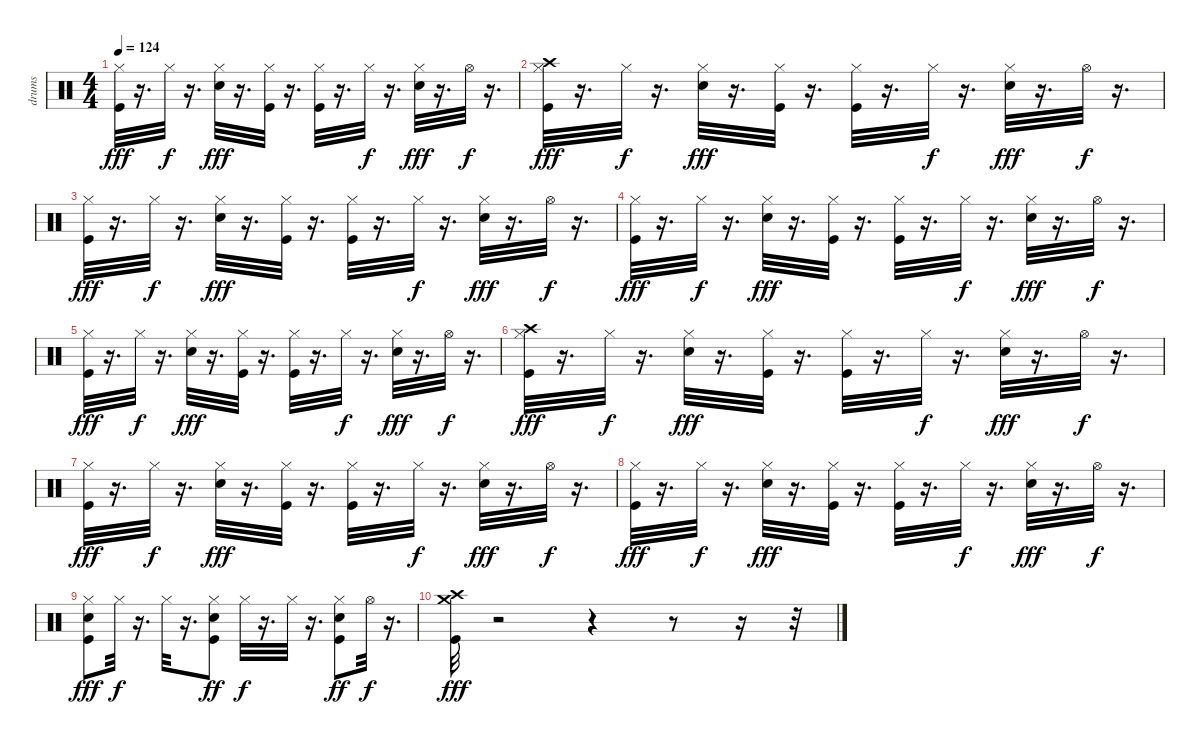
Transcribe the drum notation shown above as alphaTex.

\track ("drums" "drums") {instrument percussion}
\staff {score}
\articulation defaults
\ts (4 4)
\tempo 124
\clef neutral
\ks c
("Hi-Hat (closed)" "Kick (hit)").32{dy fff} r.16{d} "Hi-Hat (closed)".32{dy f} r.16{d} ("Hi-Hat (closed)" "Electric Snare (hit)").32{dy fff} r.16{d} ("Hi-Hat (closed)" "Kick (hit)").32 r.16{d} ("Hi-Hat (closed)" "Kick (hit)").32 r.16{d} "Hi-Hat (closed)".32{dy f} r.16{d} ("Hi-Hat (closed)" "Electric Snare (hit)").32{dy fff} r.16{d} "Hi-Hat (open)".32{dy f} r.16{d} |
("Crash high (hit)" "Hi-Hat (closed)" "Kick (hit)").32{dy fff} r.16{d} "Hi-Hat (closed)".32{dy f} r.16{d} ("Hi-Hat (closed)" "Electric Snare (hit)").32{dy fff} r.16{d} ("Hi-Hat (closed)" "Kick (hit)").32 r.16{d} ("Hi-Hat (closed)" "Kick (hit)").32 r.16{d} "Hi-Hat (closed)".32{dy f} r.16{d} ("Hi-Hat (closed)" "Electric Snare (hit)").32{dy fff} r.16{d} "Hi-Hat (open)".32{dy f} r.16{d} |
("Kick (hit)" "Hi-Hat (closed)").32{dy fff} r.16{d} "Hi-Hat (closed)".32{dy f} r.16{d} ("Electric Snare (hit)" "Hi-Hat (closed)").32{dy fff} r.16{d} ("Kick (hit)" "Hi-Hat (closed)").32 r.16{d} ("Kick (hit)" "Hi-Hat (closed)").32 r.16{d} "Hi-Hat (closed)".32{dy f} r.16{d} ("Electric Snare (hit)" "Hi-Hat (closed)").32{dy fff} r.16{d} "Hi-Hat (open)".32{dy f} r.16{d} |
("Hi-Hat (closed)" "Kick (hit)").32{dy fff} r.16{d} "Hi-Hat (closed)".32{dy f} r.16{d} ("Hi-Hat (closed)" "Electric Snare (hit)").32{dy fff} r.16{d} ("Hi-Hat (closed)" "Kick (hit)").32 r.16{d} ("Hi-Hat (closed)" "Kick (hit)").32 r.16{d} "Hi-Hat (closed)".32{dy f} r.16{d} ("Hi-Hat (closed)" "Electric Snare (hit)").32{dy fff} r.16{d} "Hi-Hat (open)".32{dy f} r.16{d} |
("Kick (hit)" "Hi-Hat (closed)").32{dy fff} r.16{d} "Hi-Hat (closed)".32{dy f} r.16{d} ("Electric Snare (hit)" "Hi-Hat (closed)").32{dy fff} r.16{d} ("Kick (hit)" "Hi-Hat (closed)").32 r.16{d} ("Kick (hit)" "Hi-Hat (closed)").32 r.16{d} "Hi-Hat (closed)".32{dy f} r.16{d} ("Electric Snare (hit)" "Hi-Hat (closed)").32{dy fff} r.16{d} "Hi-Hat (open)".32{dy f} r.16{d} |
("Crash high (hit)" "Hi-Hat (closed)" "Kick (hit)").32{dy fff} r.16{d} "Hi-Hat (closed)".32{dy f} r.16{d} ("Hi-Hat (closed)" "Electric Snare (hit)").32{dy fff} r.16{d} ("Hi-Hat (closed)" "Kick (hit)").32 r.16{d} ("Hi-Hat (closed)" "Kick (hit)").32 r.16{d} "Hi-Hat (closed)".32{dy f} r.16{d} ("Hi-Hat (closed)" "Electric Snare (hit)").32{dy fff} r.16{d} "Hi-Hat (open)".32{dy f} r.16{d} |
("Hi-Hat (closed)" "Kick (hit)").32{dy fff} r.16{d} "Hi-Hat (closed)".32{dy f} r.16{d} ("Hi-Hat (closed)" "Electric Snare (hit)").32{dy fff} r.16{d} ("Hi-Hat (closed)" "Kick (hit)").32 r.16{d} ("Hi-Hat (closed)" "Kick (hit)").32 r.16{d} "Hi-Hat (closed)".32{dy f} r.16{d} ("Hi-Hat (closed)" "Electric Snare (hit)").32{dy fff} r.16{d} "Hi-Hat (open)".32{dy f} r.16{d} |
("Kick (hit)" "Hi-Hat (closed)").32{dy fff} r.16{d} "Hi-Hat (closed)".32{dy f} r.16{d} ("Electric Snare (hit)" "Hi-Hat (closed)").32{dy fff} r.16{d} ("Kick (hit)" "Hi-Hat (closed)").32 r.16{d} ("Kick (hit)" "Hi-Hat (closed)").32 r.16{d} "Hi-Hat (closed)".32{dy f} r.16{d} ("Electric Snare (hit)" "Hi-Hat (closed)").32{dy fff} r.16{d} "Hi-Hat (open)".32{dy f} r.16{d} |
("Electric Snare (hit)" "Kick (hit)" "Hi-Hat (closed)").8{dy fff} "Hi-Hat (closed)".32{dy f} r.16{d} "Hi-Hat (closed)".32 r.16{d} ("Kick (hit)" "Hi-Hat (closed)" "Electric Snare (hit)").8{dy ff} "Hi-Hat (closed)".32{dy f} r.16{d} "Hi-Hat (closed)".32 r.16{d} ("Kick (hit)" "Hi-Hat (closed)" "Electric Snare (hit)").8{dy ff} "Hi-Hat (open)".32{dy f} r.16{d} |
("Crash high (hit)" "Crash medium (hit)" "Kick (hit)").32{dy fff} r.2 r.4 r.8 r.16 r.32
